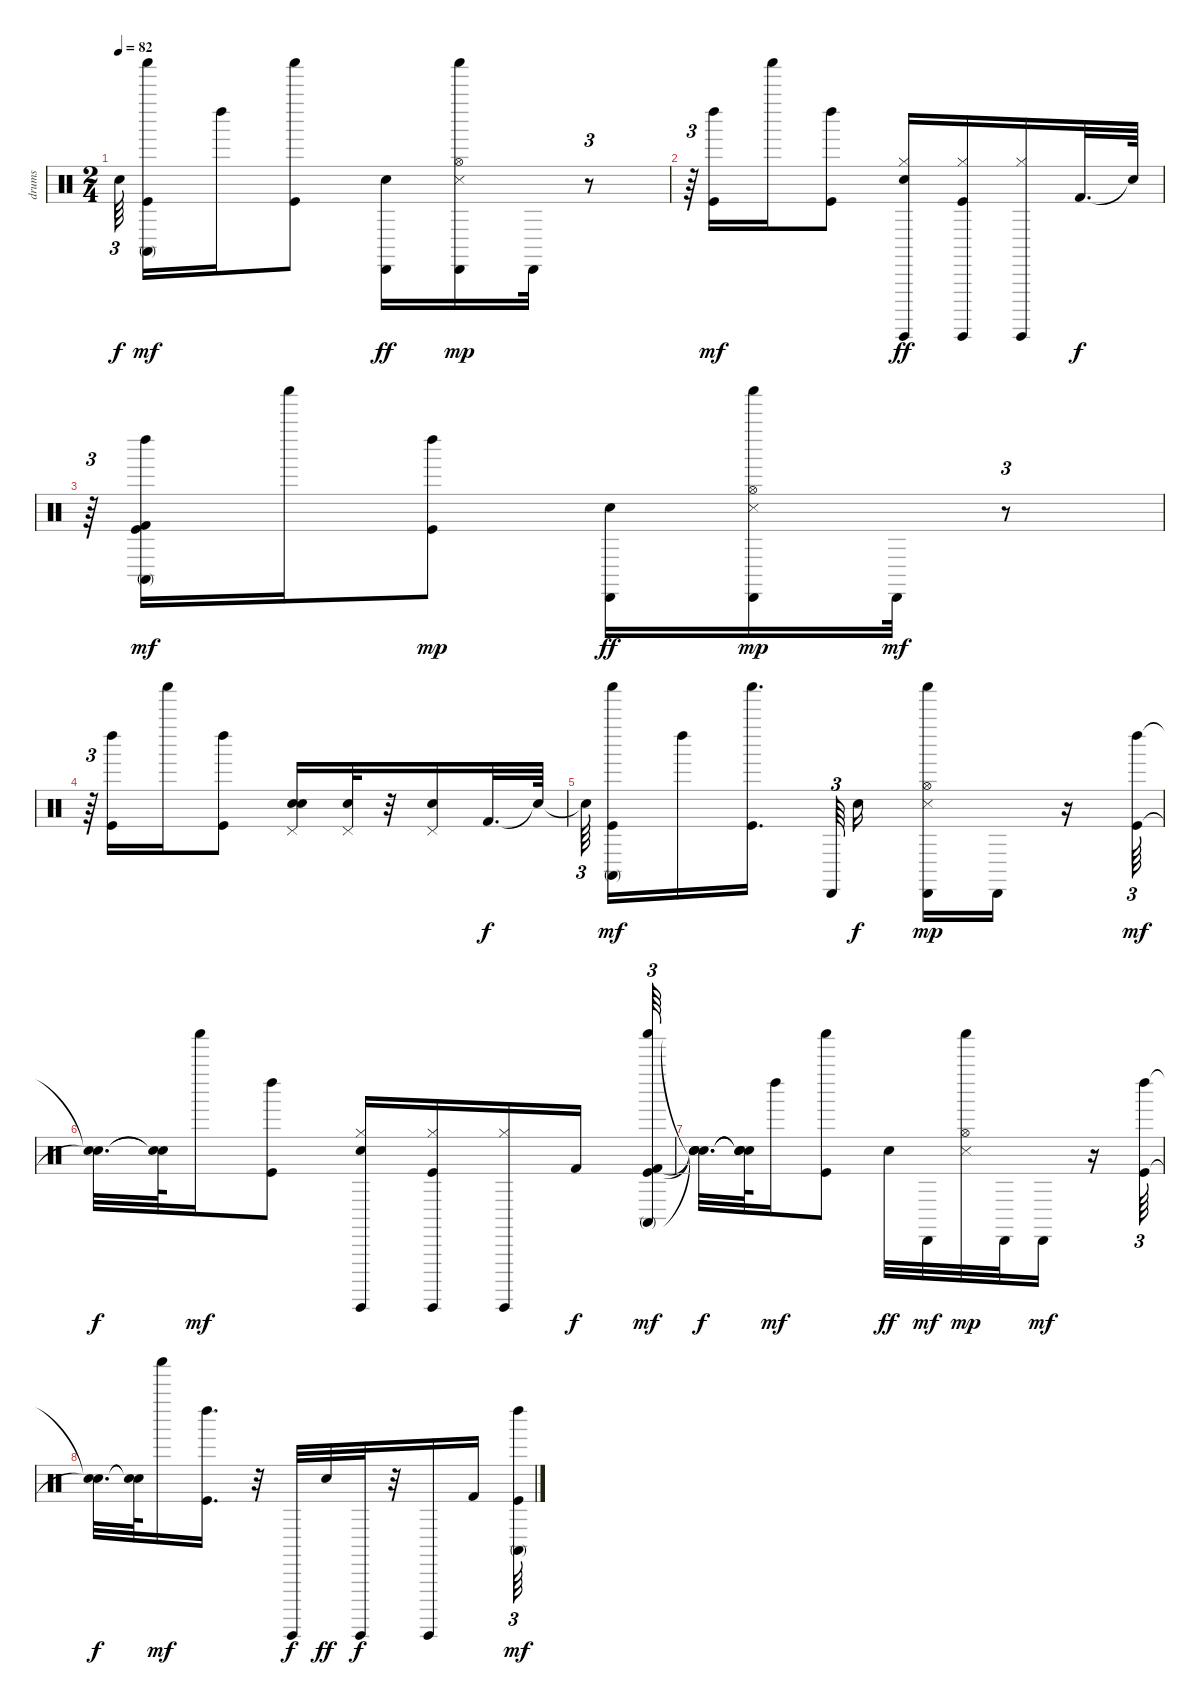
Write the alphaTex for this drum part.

\track ("drums" "drums") {instrument percussion}
\staff {score}
\articulation defaults
\ts (2 4)
\tempo 82
\clef neutral
\ks c "Snare (hit)"{t}.64{tu (3 2) dy f beam splitsecondary}
("Kick (hit)" "Shaker (hit)" "Conga high (mute)").16{dy mf} "Left Maraca (hit)".16 ("Kick (hit)" "Shaker (hit)").8 ("Cabasa (hit)" "Electric Snare (hit)").16{dy ff} ("Snare (side stick) 3" "Shaker (hit)" "Hi-Hat (open)" "Cabasa (hit)").16{dy mp} "Cabasa (hit)".32 r.8{tu (3 2)} |
r.64{tu (3 2)} ("Kick (hit)" "Left Maraca (hit)").16{dy mf} "Shaker (hit)".16 ("Kick (hit)" "Left Maraca (hit)").8 ("Hi-Hat (closed)" "Guiro (hit)" "Electric Snare (hit)").16{dy ff} ("Kick (hit)" "Guiro (hit)" "Hi-Hat (closed)").16 ("Guiro (hit)" "Hi-Hat (closed)").16 "Kick (hit) 2".32{d dy f} "Snare (hit)"{t}.64 |
r.64{tu (3 2)} ("Kick (hit)" "Kick (hit) 2" "Left Maraca (hit)" "Conga high (mute)").16{dy mf} "Shaker (hit)".16 ("Kick (hit)" "Left Maraca (hit)").8{dy mp} ("Cabasa (hit)" "Electric Snare (hit)").16{dy ff} ("Cabasa (hit)" "Snare (side stick) 3" "Shaker (hit)" "Hi-Hat (open)").16{dy mp} "Cabasa (hit)".32{dy mf} r.8{tu (3 2)} |
r.64{tu (3 2)} ("Kick (hit)" "Left Maraca (hit)").16 "Shaker (hit)".16 ("Kick (hit)" "Left Maraca (hit)").8 ("Hand Clap (hit)" "Pedal Hi-Hat (hit)" "Electric Snare (hit)").16 ("Pedal Hi-Hat (hit)" "Hand Clap (hit)").32 r.32 ("Pedal Hi-Hat (hit)" "Hand Clap (hit)").16 "Kick (hit) 2".32{d dy f} "Snare (hit)"{t}.64 |
"Snare (hit)"{t}.64{tu (3 2) beam splitsecondary} ("Kick (hit)" "Shaker (hit)" "Conga high (mute)").16{dy mf} "Left Maraca (hit)".16 ("Kick (hit)" "Shaker (hit)").16{d beam splitsecondary} "Cabasa (hit)".64{tu (3 2)} "Electric Snare (hit)".16{dy f} ("Cabasa (hit)" "Snare (side stick) 3" "Shaker (hit)" "Hi-Hat (open)").16{dy mp} "Cabasa (hit)".16 r.16 ("Kick (hit)" "Left Maraca (hit)").64{tu (3 2) dy mf} |
("Snare (hit)"{t} "Snare (hit)"{t}).32{d dy f} ("Snare (hit)"{t} "Snare (hit)"{t}).64 "Shaker (hit)".16{dy mf} ("Kick (hit)" "Left Maraca (hit)").8 ("Electric Snare (hit)" "Hi-Hat (closed)" "Guiro (hit)").16 ("Kick (hit)" "Guiro (hit)" "Hi-Hat (closed)").16 ("Guiro (hit)" "Hi-Hat (closed)").16 "Kick (hit) 2".16{dy f} ("Kick (hit)" "Kick (hit) 2" "Shaker (hit)" "Conga high (mute)").64{tu (3 2) dy mf} |
("Snare (hit)"{t} "Snare (hit)"{t} "Snare (hit)"{t} "Snare (hit)"{t}).32{d dy f} ("Snare (hit)"{t} "Snare (hit)"{t} "Snare (hit)"{t} "Snare (hit)"{t}).64 "Left Maraca (hit)".16{dy mf} ("Kick (hit)" "Shaker (hit)").8 "Electric Snare (hit)".32{dy ff} "Cabasa (hit)".32{dy mf} ("Snare (side stick) 3" "Shaker (hit)" "Hi-Hat (open)").32{dy mp} "Cabasa (hit)".32 "Cabasa (hit)".16{dy mf} r.16 ("Kick (hit)" "Left Maraca (hit)").64{tu (3 2)} |
("Snare (hit)"{t} "Snare (hit)"{t}).32{d dy f} ("Snare (hit)"{t} "Snare (hit)"{t}).64 "Shaker (hit)".16{dy mf} ("Kick (hit)" "Left Maraca (hit)").16{d} r.32 "Guiro (hit)".32{dy f} "Electric Snare (hit)".32{dy ff} "Guiro (hit)".32{dy f} r.32 "Guiro (hit)".16 "Kick (hit) 2".16 ("Kick (hit)" "Left Maraca (hit)" "Conga high (mute)").64{tu (3 2) dy mf}
